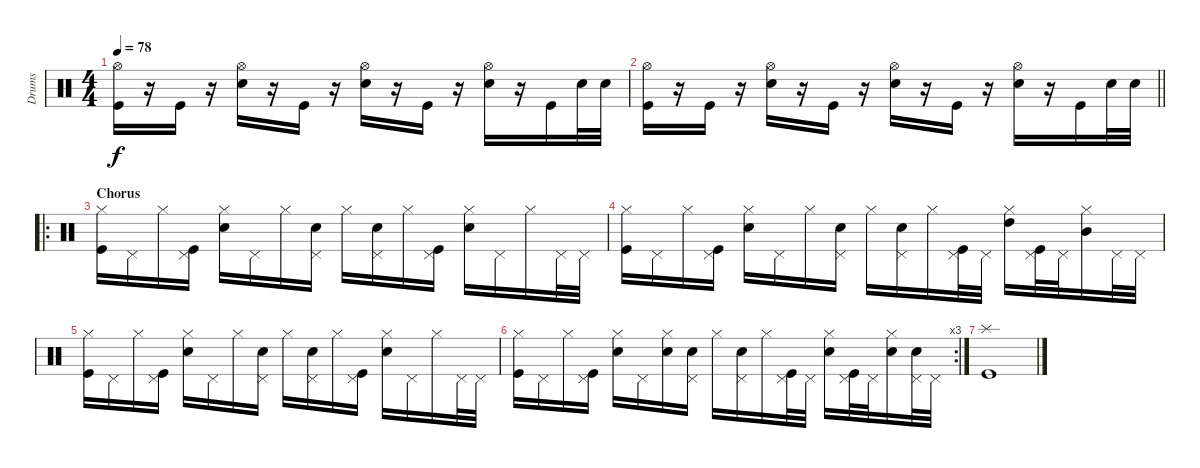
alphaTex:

\track ("Drums" "Drums") {instrument percussion}
\staff {score}
\articulation defaults
\ts (4 4)
\tempo 78
\clef neutral
\ks c
("Hi-Hat (open)" "Kick (hit)").16{dy f} r.16 "Kick (hit)".16 r.16 ("Hi-Hat (open)" "Snare (hit) 2").16 r.16 "Kick (hit)".16 r.16 ("Hi-Hat (open)" "Snare (hit) 2").16 r.16 "Kick (hit)".16 r.16 ("Hi-Hat (open)" "Snare (hit) 2").16 r.16 "Kick (hit)".16 "Snare (hit) 2".32 "Snare (hit) 2".32 |
\barLineRight lightlight
("Hi-Hat (open)" "Kick (hit)").16 r.16 "Kick (hit)".16 r.16 ("Hi-Hat (open)" "Snare (hit) 2").16 r.16 "Kick (hit)".16 r.16 ("Hi-Hat (open)" "Snare (hit) 2").16 r.16 "Kick (hit)".16 r.16 ("Hi-Hat (open)" "Snare (hit) 2").16 r.16 "Kick (hit)".16 "Snare (hit) 2".32 "Snare (hit) 2".32 |
\ro
\section ("" "Chorus")
("Hi-Hat (closed)" "Kick (hit)").16 "Pedal Hi-Hat (hit)".16 "Hi-Hat (closed)".16 ("Pedal Hi-Hat (hit)" "Kick (hit)").16 ("Hi-Hat (closed)" "Snare (hit) 2").16 "Pedal Hi-Hat (hit)".16 "Hi-Hat (closed)".16 ("Pedal Hi-Hat (hit)" "Snare (hit) 2").16 "Hi-Hat (closed)".16 ("Pedal Hi-Hat (hit)" "Snare (hit) 2").16 "Hi-Hat (closed)".16 ("Pedal Hi-Hat (hit)" "Kick (hit)").16 ("Hi-Hat (closed)" "Snare (hit) 2").16 "Pedal Hi-Hat (hit)".16 "Hi-Hat (closed)".16 "Pedal Hi-Hat (hit)".32 "Pedal Hi-Hat (hit)".32 |
("Hi-Hat (closed)" "Kick (hit)").16 "Pedal Hi-Hat (hit)".16 "Hi-Hat (closed)".16 ("Pedal Hi-Hat (hit)" "Kick (hit)").16 ("Hi-Hat (closed)" "Snare (hit) 2").16 "Pedal Hi-Hat (hit)".16 "Hi-Hat (closed)".16 ("Pedal Hi-Hat (hit)" "Snare (hit) 2").16 "Hi-Hat (closed)".16 ("Pedal Hi-Hat (hit)" "Snare (hit) 2").16 "Hi-Hat (closed)".16 ("Pedal Hi-Hat (hit)" "Kick (hit)").32 "Pedal Hi-Hat (hit)".32 ("Hi-Hat (closed)" "High Tom (hit)").16 ("Pedal Hi-Hat (hit)" "Kick (hit)").32 "Pedal Hi-Hat (hit)".32 ("Hi-Hat (closed)" "Mid Tom (hit)").16 "Pedal Hi-Hat (hit)".32 "Pedal Hi-Hat (hit)".32 |
("Hi-Hat (closed)" "Kick (hit)").16 "Pedal Hi-Hat (hit)".16 "Hi-Hat (closed)".16 ("Pedal Hi-Hat (hit)" "Kick (hit)").16 ("Hi-Hat (closed)" "Snare (hit) 2").16 "Pedal Hi-Hat (hit)".16 "Hi-Hat (closed)".16 ("Pedal Hi-Hat (hit)" "Snare (hit) 2").16 "Hi-Hat (closed)".16 ("Pedal Hi-Hat (hit)" "Snare (hit) 2").16 "Hi-Hat (closed)".16 ("Pedal Hi-Hat (hit)" "Kick (hit)").16 ("Hi-Hat (closed)" "Snare (hit) 2").16 "Pedal Hi-Hat (hit)".16 "Hi-Hat (closed)".16 "Pedal Hi-Hat (hit)".32 "Pedal Hi-Hat (hit)".32 |
\rc 3
("Hi-Hat (closed)" "Kick (hit)").16 "Pedal Hi-Hat (hit)".16 "Hi-Hat (closed)".16 ("Pedal Hi-Hat (hit)" "Kick (hit)").16 ("Hi-Hat (closed)" "Snare (hit) 2").16 "Pedal Hi-Hat (hit)".16 ("Hi-Hat (closed)" "Snare (hit) 2").16 ("Pedal Hi-Hat (hit)" "Snare (hit) 2").16 "Hi-Hat (closed)".16 ("Pedal Hi-Hat (hit)" "Snare (hit) 2").16 "Hi-Hat (closed)".16 ("Pedal Hi-Hat (hit)" "Kick (hit)").32 "Pedal Hi-Hat (hit)".32 ("Hi-Hat (closed)" "Snare (hit) 2").16 ("Pedal Hi-Hat (hit)" "Kick (hit)").32 "Pedal Hi-Hat (hit)".32 ("Hi-Hat (closed)" "Snare (hit) 2").16 ("Pedal Hi-Hat (hit)" "Snare (hit) 2").32 "Pedal Hi-Hat (hit)".32 |
("Splash (hit)" "Kick (hit)").1
